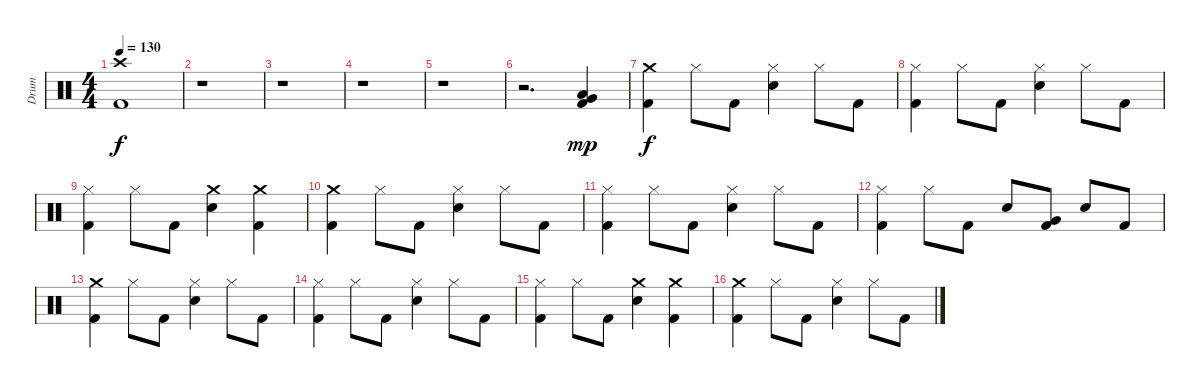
\track ("Drum" "Drum") {instrument percussion}
\staff {score}
\articulation defaults
\ts (4 4)
\tempo 130
\clef neutral
\ks c
("Kick (hit) 2" "Crash high (hit)").1{dy f} |
r.1 |
r.1 |
r.1 |
r.1 |
r.2{d} ("Very Low Tom (hit)" "Kick (hit) 2" "Low Tom (hit)").4{dy mp} |
("Crash medium (hit)" "Kick (hit) 2").4{dy f} "Hi-Hat (closed)".8 "Kick (hit) 2".8 ("Hi-Hat (closed)" "Electric Snare (hit)").4 "Hi-Hat (closed)".8 "Kick (hit) 2".8 |
("Hi-Hat (closed)" "Kick (hit) 2").4 "Hi-Hat (closed)".8 "Kick (hit) 2".8 ("Hi-Hat (closed)" "Electric Snare (hit)").4 "Hi-Hat (closed)".8 "Kick (hit) 2".8 |
("Hi-Hat (closed)" "Kick (hit) 2").4 "Hi-Hat (closed)".8 "Kick (hit) 2".8 ("Crash medium (hit)" "Electric Snare (hit)").4 ("Crash medium (hit)" "Kick (hit) 2").4 |
("Crash medium (hit)" "Kick (hit) 2").4 "Hi-Hat (closed)".8 "Kick (hit) 2".8 ("Hi-Hat (closed)" "Electric Snare (hit)").4 "Hi-Hat (closed)".8 "Kick (hit) 2".8 |
("Hi-Hat (closed)" "Kick (hit) 2").4 "Hi-Hat (closed)".8 "Kick (hit) 2".8 ("Hi-Hat (closed)" "Electric Snare (hit)").4 "Hi-Hat (closed)".8 "Kick (hit) 2".8 |
("Hi-Hat (closed)" "Kick (hit) 2").4 "Hi-Hat (closed)".8 "Kick (hit) 2".8 "Electric Snare (hit)".8 ("Very Low Tom (hit)" "Kick (hit) 2").8 "Electric Snare (hit)".8 "Kick (hit) 2".8 |
("Crash medium (hit)" "Kick (hit) 2").4 "Hi-Hat (closed)".8 "Kick (hit) 2".8 ("Hi-Hat (closed)" "Electric Snare (hit)").4 "Hi-Hat (closed)".8 "Kick (hit) 2".8 |
("Hi-Hat (closed)" "Kick (hit) 2").4 "Hi-Hat (closed)".8 "Kick (hit) 2".8 ("Hi-Hat (closed)" "Electric Snare (hit)").4 "Hi-Hat (closed)".8 "Kick (hit) 2".8 |
("Hi-Hat (closed)" "Kick (hit) 2").4 "Hi-Hat (closed)".8 "Kick (hit) 2".8 ("Crash medium (hit)" "Electric Snare (hit)").4 ("Crash medium (hit)" "Kick (hit) 2").4 |
("Crash medium (hit)" "Kick (hit) 2").4 "Hi-Hat (closed)".8 "Kick (hit) 2".8 ("Hi-Hat (closed)" "Electric Snare (hit)").4 "Hi-Hat (closed)".8 "Kick (hit) 2".8
